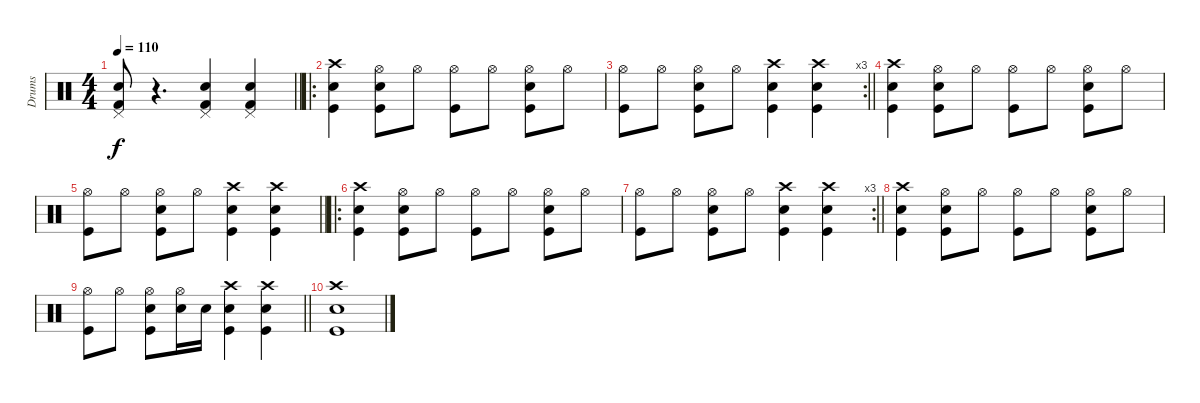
\track ("Drums" "Drums") {instrument percussion}
\staff {score}
\articulation defaults
\ts (4 4)
\tempo 110
\clef neutral
\barLineRight lightlight
\ks c
("Pedal Hi-Hat (hit)" "Electric Snare (hit)" "Kick (hit) 2").8{dy f} r.4{d} ("Pedal Hi-Hat (hit)" "Electric Snare (hit)" "Kick (hit) 2").4 ("Pedal Hi-Hat (hit)" "Electric Snare (hit)" "Kick (hit) 2").4 |
\ro
("Crash high (hit)" "Snare (hit) 2" "Kick (hit)").4 ("Hi-Hat (open)" "Snare (hit) 2" "Kick (hit)").8 "Hi-Hat (open)".8 ("Hi-Hat (open)" "Kick (hit)").8 "Hi-Hat (open)".8 ("Hi-Hat (open)" "Snare (hit) 2" "Kick (hit)").8 "Hi-Hat (open)".8 |
\rc 3
\barLineRight lightlight
("Hi-Hat (open)" "Kick (hit)").8 "Hi-Hat (open)".8 ("Hi-Hat (open)" "Snare (hit) 2" "Kick (hit)").8 "Hi-Hat (open)".8 ("Crash high (hit)" "Snare (hit) 2" "Kick (hit)").4 ("Crash high (hit)" "Snare (hit) 2" "Kick (hit)").4 |
("Crash high (hit)" "Snare (hit) 2" "Kick (hit)").4 ("Hi-Hat (open)" "Snare (hit) 2" "Kick (hit)").8 "Hi-Hat (open)".8 ("Hi-Hat (open)" "Kick (hit)").8 "Hi-Hat (open)".8 ("Hi-Hat (open)" "Snare (hit) 2" "Kick (hit)").8 "Hi-Hat (open)".8 |
\barLineRight lightlight
("Hi-Hat (open)" "Kick (hit)").8 "Hi-Hat (open)".8 ("Hi-Hat (open)" "Snare (hit) 2" "Kick (hit)").8 "Hi-Hat (open)".8 ("Crash high (hit)" "Snare (hit) 2" "Kick (hit)").4 ("Crash high (hit)" "Snare (hit) 2" "Kick (hit)").4 |
\ro
("Crash high (hit)" "Snare (hit) 2" "Kick (hit)").4 ("Hi-Hat (open)" "Snare (hit) 2" "Kick (hit)").8 "Hi-Hat (open)".8 ("Hi-Hat (open)" "Kick (hit)").8 "Hi-Hat (open)".8 ("Hi-Hat (open)" "Snare (hit) 2" "Kick (hit)").8 "Hi-Hat (open)".8 |
\rc 3
\barLineRight lightlight
("Hi-Hat (open)" "Kick (hit)").8 "Hi-Hat (open)".8 ("Hi-Hat (open)" "Snare (hit) 2" "Kick (hit)").8 "Hi-Hat (open)".8 ("Crash high (hit)" "Snare (hit) 2" "Kick (hit)").4 ("Crash high (hit)" "Snare (hit) 2" "Kick (hit)").4 |
("Crash high (hit)" "Snare (hit) 2" "Kick (hit)").4 ("Hi-Hat (open)" "Snare (hit) 2" "Kick (hit)").8 "Hi-Hat (open)".8 ("Hi-Hat (open)" "Kick (hit)").8 "Hi-Hat (open)".8 ("Hi-Hat (open)" "Snare (hit) 2" "Kick (hit)").8 "Hi-Hat (open)".8 |
\barLineRight lightlight
("Hi-Hat (open)" "Kick (hit)").8 "Hi-Hat (open)".8 ("Hi-Hat (open)" "Snare (hit) 2" "Kick (hit)").8 ("Hi-Hat (open)" "Snare (hit) 2").16 "Snare (hit) 2".16 ("Crash high (hit)" "Snare (hit) 2" "Kick (hit)").4 ("Crash high (hit)" "Snare (hit) 2" "Kick (hit)").4 |
("Crash high (hit)" "Snare (hit) 2" "Kick (hit)").1
